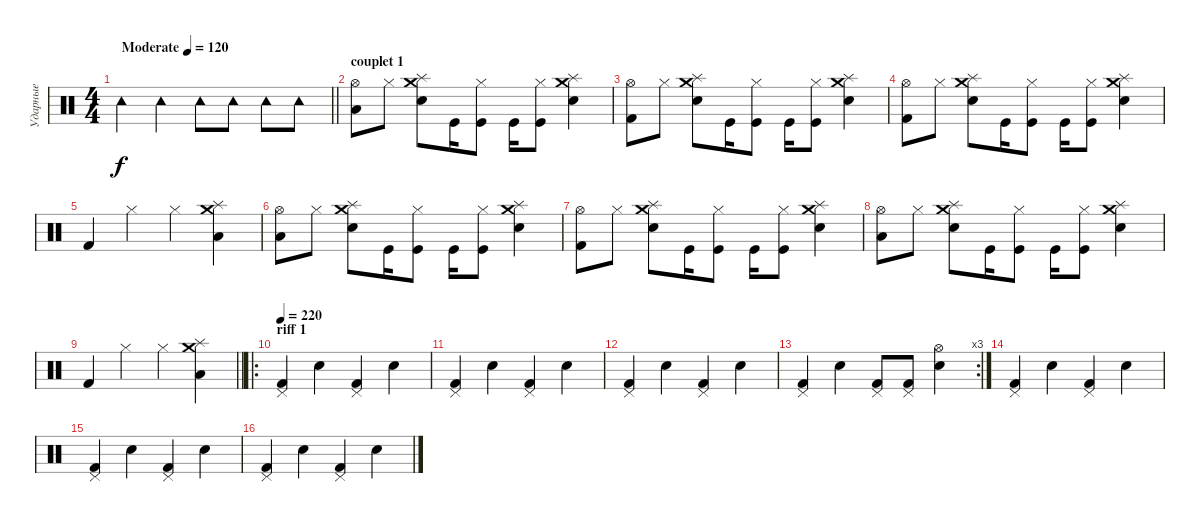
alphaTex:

\track ("Ударные" "Ударные") {instrument percussion}
\staff
\articulation defaults
\ts (4 4)
\tempo (120 "Moderate")
\tempo 110
\tempo (120 "Moderate")
\clef neutral
\barLineRight lightlight
\ks c "Tambourine (hit)".4{dy f} "Tambourine (hit)".4 "Tambourine (hit)".8 "Tambourine (hit)".8 "Tambourine (hit)".8 "Tambourine (hit)".8
|
\section ("" "couplet 1")
("Hi-Hat (open)" "Low Tom (hit)").8 "Hi-Hat (closed)".8 ("Crash medium (hit)" "Splash (hit)" "Electric Snare (hit)").8 "Kick (hit)".16 ("Hi-Hat (closed)" "Kick (hit)").8 "Kick (hit)".16 ("Hi-Hat (closed)" "Kick (hit)").8 ("Crash medium (hit)" "Splash (hit)" "Electric Snare (hit)").4 |
("Hi-Hat (open)" "Kick (hit) 2").8 "Hi-Hat (closed)".8 ("Crash medium (hit)" "Splash (hit)" "Electric Snare (hit)").8 "Kick (hit)".16 ("Hi-Hat (closed)" "Kick (hit)").8 "Kick (hit)".16 ("Hi-Hat (closed)" "Kick (hit)").8 ("Crash medium (hit)" "Splash (hit)" "Electric Snare (hit)").4 |
("Hi-Hat (open)" "Kick (hit) 2").8 "Hi-Hat (closed)".8 ("Crash medium (hit)" "Splash (hit)" "Electric Snare (hit)").8 "Kick (hit)".16 ("Hi-Hat (closed)" "Kick (hit)").8 "Kick (hit)".16 ("Hi-Hat (closed)" "Kick (hit)").8 ("Crash medium (hit)" "Splash (hit)" "Electric Snare (hit)").4 |
"Kick (hit) 2".4 "Hi-Hat (closed)".4 "Hi-Hat (closed)".4 ("Crash medium (hit)" "Splash (hit)" "Low Tom (hit)").4 |
("Hi-Hat (open)" "Low Tom (hit)").8 "Hi-Hat (closed)".8 ("Crash medium (hit)" "Splash (hit)" "Electric Snare (hit)").8 "Kick (hit)".16 ("Hi-Hat (closed)" "Kick (hit)").8 "Kick (hit)".16 ("Hi-Hat (closed)" "Kick (hit)").8 ("Crash medium (hit)" "Splash (hit)" "Electric Snare (hit)").4 |
("Hi-Hat (open)" "Kick (hit) 2").8 "Hi-Hat (closed)".8 ("Crash medium (hit)" "Splash (hit)" "Electric Snare (hit)").8 "Kick (hit)".16 ("Hi-Hat (closed)" "Kick (hit)").8 "Kick (hit)".16 ("Hi-Hat (closed)" "Kick (hit)").8 ("Crash medium (hit)" "Splash (hit)" "Electric Snare (hit)").4 |
("Hi-Hat (open)" "Low Tom (hit)").8 "Hi-Hat (closed)".8 ("Crash medium (hit)" "Splash (hit)" "Electric Snare (hit)").8 "Kick (hit)".16 ("Hi-Hat (closed)" "Kick (hit)").8 "Kick (hit)".16 ("Hi-Hat (closed)" "Kick (hit)").8 ("Crash medium (hit)" "Splash (hit)" "Electric Snare (hit)").4 |
\barLineRight lightlight "Kick (hit) 2".4 "Hi-Hat (closed)".4 "Hi-Hat (closed)".4
("Crash medium (hit)" "Splash (hit)" "Low Tom (hit)").4 |
\ro
\section ("" "riff 1")
\tempo 220
("Pedal Hi-Hat (hit)" "Kick (hit) 2").4 "Electric Snare (hit)".4 ("Pedal Hi-Hat (hit)" "Kick (hit) 2").4 "Electric Snare (hit)".4 |
("Pedal Hi-Hat (hit)" "Kick (hit) 2").4 "Electric Snare (hit)".4 ("Pedal Hi-Hat (hit)" "Kick (hit) 2").4 "Electric Snare (hit)".4 |
("Pedal Hi-Hat (hit)" "Kick (hit) 2").4 "Electric Snare (hit)".4 ("Pedal Hi-Hat (hit)" "Kick (hit) 2").4 "Electric Snare (hit)".4 |
\rc 3
("Pedal Hi-Hat (hit)" "Kick (hit) 2").4 "Electric Snare (hit)".4 ("Pedal Hi-Hat (hit)" "Kick (hit) 2").8 ("Pedal Hi-Hat (hit)" "Kick (hit) 2").8 ("Hi-Hat (open)" "Electric Snare (hit)").4 |
("Pedal Hi-Hat (hit)" "Kick (hit) 2").4 "Electric Snare (hit)".4 ("Pedal Hi-Hat (hit)" "Kick (hit) 2").4 "Electric Snare (hit)".4 |
("Pedal Hi-Hat (hit)" "Kick (hit) 2").4 "Electric Snare (hit)".4 ("Pedal Hi-Hat (hit)" "Kick (hit) 2").4 "Electric Snare (hit)".4 |
("Pedal Hi-Hat (hit)" "Kick (hit) 2").4 "Electric Snare (hit)".4 ("Pedal Hi-Hat (hit)" "Kick (hit) 2").4 "Electric Snare (hit)".4
